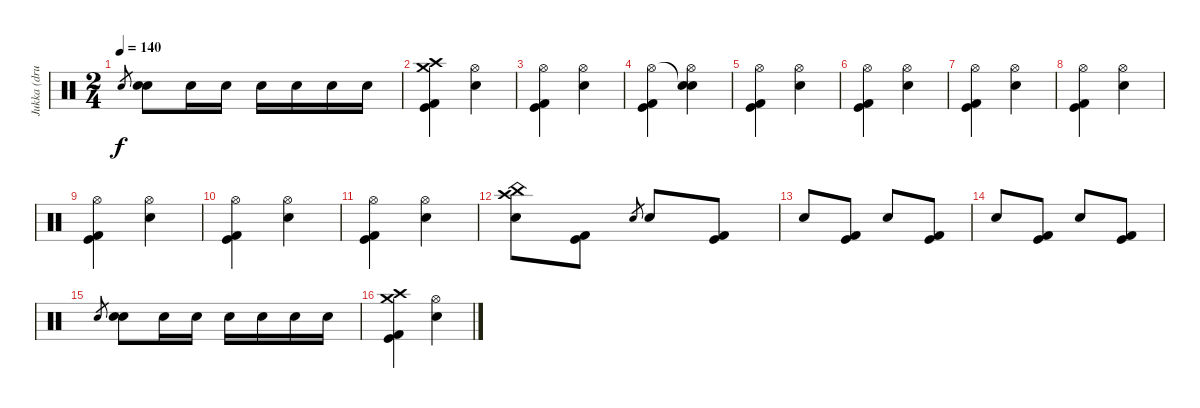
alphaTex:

\track ("Jukka (drums)" "Jukka (dru") {instrument percussion}
\staff {score}
\articulation defaults
\ts (2 4)
\tempo 140
\clef neutral
\ks c "Electric Snare (hit)".8{gr dy f}
("Electric Snare (hit)" "Electric Snare (hit)").8 "Electric Snare (hit)".16 "Electric Snare (hit)".16 "Electric Snare (hit)".16 "Electric Snare (hit)".16 "Electric Snare (hit)".16 "Electric Snare (hit)".16 |
("Kick (hit)" "Kick (hit) 2" "Crash high (hit)" "Crash medium (hit)").4 ("Electric Snare (hit)" "Hi-Hat (open)").4 |
("Kick (hit)" "Kick (hit) 2" "Hi-Hat (open)").4 ("Electric Snare (hit)" "Hi-Hat (open)").4 |
("Kick (hit)" "Kick (hit) 2" "Hi-Hat (open)").4 ("Electric Snare (hit)" "Hi-Hat (open)" "Snare (hit)"{t}).4 |
("Kick (hit)" "Kick (hit) 2" "Hi-Hat (open)").4 ("Electric Snare (hit)" "Hi-Hat (open)").4 |
("Kick (hit)" "Kick (hit) 2" "Hi-Hat (open)").4 ("Electric Snare (hit)" "Hi-Hat (open)").4 |
("Kick (hit)" "Kick (hit) 2" "Hi-Hat (open)").4 ("Electric Snare (hit)" "Hi-Hat (open)").4 |
("Kick (hit)" "Kick (hit) 2" "Hi-Hat (open)").4 ("Electric Snare (hit)" "Hi-Hat (open)").4 |
("Kick (hit)" "Kick (hit) 2" "Hi-Hat (open)").4 ("Electric Snare (hit)" "Hi-Hat (open)").4 |
("Kick (hit)" "Kick (hit) 2" "Hi-Hat (open)").4 ("Electric Snare (hit)" "Hi-Hat (open)").4 |
("Kick (hit)" "Kick (hit) 2" "Hi-Hat (open)").4 ("Electric Snare (hit)" "Hi-Hat (open)").4 |
("Electric Snare (hit)" "Crash high (hit)" "China (hit)").8 ("Kick (hit)" "Kick (hit) 2").8 "Electric Snare (hit)".8{gr} "Electric Snare (hit)".8 ("Kick (hit)" "Kick (hit) 2").8 |
"Electric Snare (hit)".8 ("Kick (hit)" "Kick (hit) 2").8 "Electric Snare (hit)".8 ("Kick (hit)" "Kick (hit) 2").8 |
"Electric Snare (hit)".8 ("Kick (hit)" "Kick (hit) 2").8 "Electric Snare (hit)".8 ("Kick (hit)" "Kick (hit) 2").8 |
"Electric Snare (hit)".8{gr} ("Electric Snare (hit)" "Electric Snare (hit)").8 "Electric Snare (hit)".16 "Electric Snare (hit)".16 "Electric Snare (hit)".16 "Electric Snare (hit)".16 "Electric Snare (hit)".16 "Electric Snare (hit)".16 |
("Kick (hit)" "Kick (hit) 2" "Crash high (hit)" "Crash medium (hit)").4 ("Electric Snare (hit)" "Hi-Hat (open)").4
